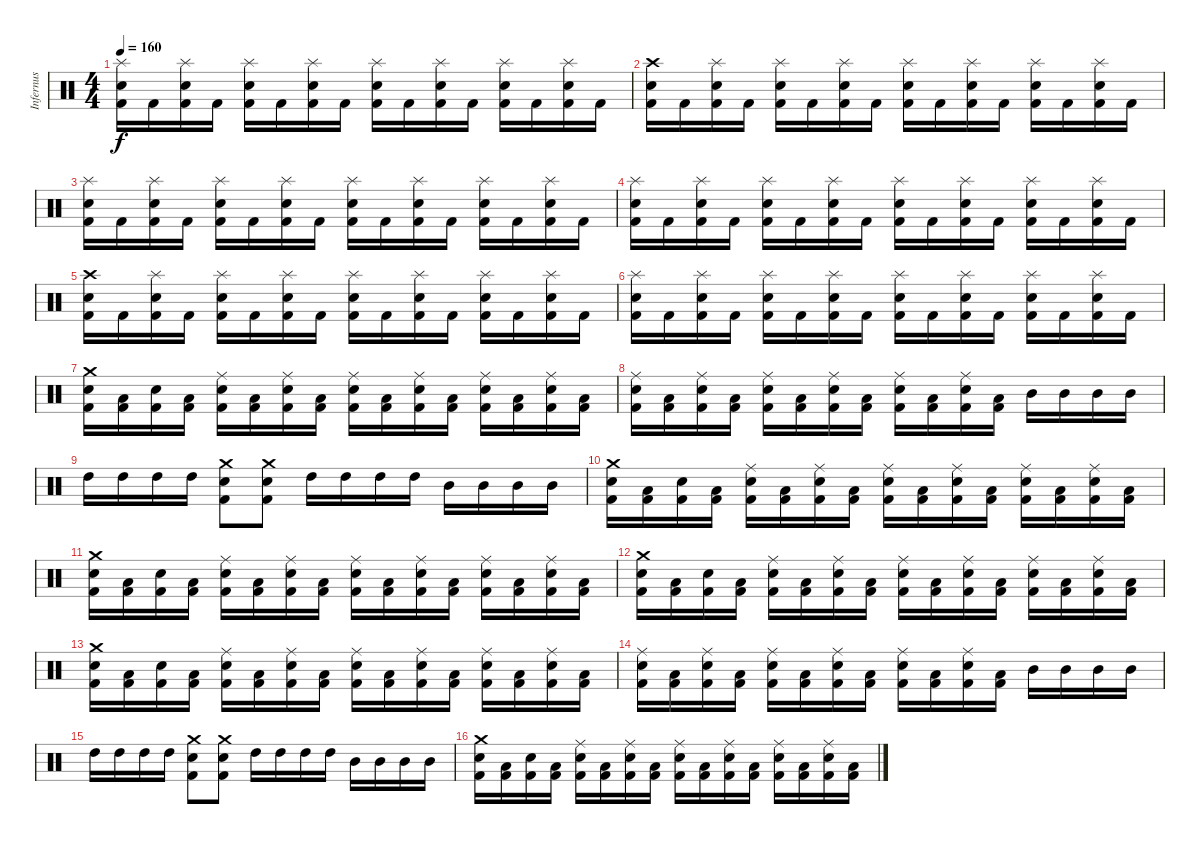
\track ("Infernus" "Infernus") {instrument percussion}
\staff {score}
\articulation defaults
\ts (4 4)
\tempo 160
\clef neutral
\ks c
("Splash (hit)" "Electric Snare (hit)" "Kick (hit) 2").16{dy f} "Kick (hit) 2".16 ("Splash (hit)" "Electric Snare (hit)" "Kick (hit) 2").16 "Kick (hit) 2".16 ("Splash (hit)" "Electric Snare (hit)" "Kick (hit) 2").16 "Kick (hit) 2".16 ("Splash (hit)" "Electric Snare (hit)" "Kick (hit) 2").16 "Kick (hit) 2".16 ("Splash (hit)" "Electric Snare (hit)" "Kick (hit) 2").16 "Kick (hit) 2".16 ("Splash (hit)" "Electric Snare (hit)" "Kick (hit) 2").16 "Kick (hit) 2".16 ("Splash (hit)" "Electric Snare (hit)" "Kick (hit) 2").16 "Kick (hit) 2".16 ("Splash (hit)" "Electric Snare (hit)" "Kick (hit) 2").16 "Kick (hit) 2".16 |
("Crash high (hit)" "Electric Snare (hit)" "Kick (hit) 2").16 "Kick (hit) 2".16 ("Splash (hit)" "Electric Snare (hit)" "Kick (hit) 2").16 "Kick (hit) 2".16 ("Splash (hit)" "Electric Snare (hit)" "Kick (hit) 2").16 "Kick (hit) 2".16 ("Splash (hit)" "Electric Snare (hit)" "Kick (hit) 2").16 "Kick (hit) 2".16 ("Splash (hit)" "Electric Snare (hit)" "Kick (hit) 2").16 "Kick (hit) 2".16 ("Splash (hit)" "Electric Snare (hit)" "Kick (hit) 2").16 "Kick (hit) 2".16 ("Splash (hit)" "Electric Snare (hit)" "Kick (hit) 2").16 "Kick (hit) 2".16 ("Splash (hit)" "Electric Snare (hit)" "Kick (hit) 2").16 "Kick (hit) 2".16 |
("Splash (hit)" "Electric Snare (hit)" "Kick (hit) 2").16 "Kick (hit) 2".16 ("Splash (hit)" "Electric Snare (hit)" "Kick (hit) 2").16 "Kick (hit) 2".16 ("Splash (hit)" "Electric Snare (hit)" "Kick (hit) 2").16 "Kick (hit) 2".16 ("Splash (hit)" "Electric Snare (hit)" "Kick (hit) 2").16 "Kick (hit) 2".16 ("Splash (hit)" "Electric Snare (hit)" "Kick (hit) 2").16 "Kick (hit) 2".16 ("Splash (hit)" "Electric Snare (hit)" "Kick (hit) 2").16 "Kick (hit) 2".16 ("Splash (hit)" "Electric Snare (hit)" "Kick (hit) 2").16 "Kick (hit) 2".16 ("Splash (hit)" "Electric Snare (hit)" "Kick (hit) 2").16 "Kick (hit) 2".16 |
("Splash (hit)" "Electric Snare (hit)" "Kick (hit) 2").16 "Kick (hit) 2".16 ("Splash (hit)" "Electric Snare (hit)" "Kick (hit) 2").16 "Kick (hit) 2".16 ("Splash (hit)" "Electric Snare (hit)" "Kick (hit) 2").16 "Kick (hit) 2".16 ("Splash (hit)" "Electric Snare (hit)" "Kick (hit) 2").16 "Kick (hit) 2".16 ("Splash (hit)" "Electric Snare (hit)" "Kick (hit) 2").16 "Kick (hit) 2".16 ("Splash (hit)" "Electric Snare (hit)" "Kick (hit) 2").16 "Kick (hit) 2".16 ("Splash (hit)" "Electric Snare (hit)" "Kick (hit) 2").16 "Kick (hit) 2".16 ("Splash (hit)" "Electric Snare (hit)" "Kick (hit) 2").16 "Kick (hit) 2".16 |
("Crash high (hit)" "Electric Snare (hit)" "Kick (hit) 2").16 "Kick (hit) 2".16 ("Splash (hit)" "Electric Snare (hit)" "Kick (hit) 2").16 "Kick (hit) 2".16 ("Splash (hit)" "Electric Snare (hit)" "Kick (hit) 2").16 "Kick (hit) 2".16 ("Splash (hit)" "Electric Snare (hit)" "Kick (hit) 2").16 "Kick (hit) 2".16 ("Splash (hit)" "Electric Snare (hit)" "Kick (hit) 2").16 "Kick (hit) 2".16 ("Splash (hit)" "Electric Snare (hit)" "Kick (hit) 2").16 "Kick (hit) 2".16 ("Splash (hit)" "Electric Snare (hit)" "Kick (hit) 2").16 "Kick (hit) 2".16 ("Splash (hit)" "Electric Snare (hit)" "Kick (hit) 2").16 "Kick (hit) 2".16 |
("Splash (hit)" "Electric Snare (hit)" "Kick (hit) 2").16 "Kick (hit) 2".16 ("Splash (hit)" "Electric Snare (hit)" "Kick (hit) 2").16 "Kick (hit) 2".16 ("Splash (hit)" "Electric Snare (hit)" "Kick (hit) 2").16 "Kick (hit) 2".16 ("Splash (hit)" "Electric Snare (hit)" "Kick (hit) 2").16 "Kick (hit) 2".16 ("Splash (hit)" "Electric Snare (hit)" "Kick (hit) 2").16 "Kick (hit) 2".16 ("Splash (hit)" "Electric Snare (hit)" "Kick (hit) 2").16 "Kick (hit) 2".16 ("Splash (hit)" "Electric Snare (hit)" "Kick (hit) 2").16 "Kick (hit) 2".16 ("Splash (hit)" "Electric Snare (hit)" "Kick (hit) 2").16 "Kick (hit) 2".16 |
("Crash medium (hit)" "Electric Snare (hit)" "Kick (hit) 2").16 ("Low Tom (hit)" "Kick (hit) 2").16 ("Electric Snare (hit)" "Kick (hit) 2").16 ("Low Tom (hit)" "Kick (hit) 2").16 ("Ride (middle)" "Electric Snare (hit)" "Kick (hit) 2").16 ("Low Tom (hit)" "Kick (hit) 2").16 ("Ride (middle)" "Electric Snare (hit)" "Kick (hit) 2").16 ("Low Tom (hit)" "Kick (hit) 2").16 ("Ride (middle)" "Electric Snare (hit)" "Kick (hit) 2").16 ("Low Tom (hit)" "Kick (hit) 2").16 ("Ride (middle)" "Electric Snare (hit)" "Kick (hit) 2").16 ("Low Tom (hit)" "Kick (hit) 2").16 ("Ride (middle)" "Electric Snare (hit)" "Kick (hit) 2").16 ("Low Tom (hit)" "Kick (hit) 2").16 ("Ride (middle)" "Electric Snare (hit)" "Kick (hit) 2").16 ("Low Tom (hit)" "Kick (hit) 2").16 |
("Ride (middle)" "Electric Snare (hit)" "Kick (hit) 2").16 ("Low Tom (hit)" "Kick (hit) 2").16 ("Ride (middle)" "Electric Snare (hit)" "Kick (hit) 2").16 ("Low Tom (hit)" "Kick (hit) 2").16 ("Ride (middle)" "Electric Snare (hit)" "Kick (hit) 2").16 ("Low Tom (hit)" "Kick (hit) 2").16 ("Ride (middle)" "Electric Snare (hit)" "Kick (hit) 2").16 ("Low Tom (hit)" "Kick (hit) 2").16 ("Ride (middle)" "Electric Snare (hit)" "Kick (hit) 2").16 ("Low Tom (hit)" "Kick (hit) 2").16 ("Ride (middle)" "Electric Snare (hit)" "Kick (hit) 2").16 ("Low Tom (hit)" "Kick (hit) 2").16 "Mid Tom (hit)".16 "Mid Tom (hit)".16 "Mid Tom (hit)".16 "Mid Tom (hit)".16 |
"High Tom (hit)".16 "High Tom (hit)".16 "High Tom (hit)".16 "High Tom (hit)".16 ("Crash medium (hit)" "Electric Snare (hit)" "Kick (hit) 2").8 ("Crash medium (hit)" "Electric Snare (hit)" "Kick (hit) 2").8 "High Tom (hit)".16 "High Tom (hit)".16 "High Tom (hit)".16 "High Tom (hit)".16 "Mid Tom (hit)".16 "Mid Tom (hit)".16 "Mid Tom (hit)".16 "Mid Tom (hit)".16 |
("Crash medium (hit)" "Electric Snare (hit)" "Kick (hit) 2").16 ("Low Tom (hit)" "Kick (hit) 2").16 ("Electric Snare (hit)" "Kick (hit) 2").16 ("Low Tom (hit)" "Kick (hit) 2").16 ("Ride (middle)" "Electric Snare (hit)" "Kick (hit) 2").16 ("Low Tom (hit)" "Kick (hit) 2").16 ("Ride (middle)" "Electric Snare (hit)" "Kick (hit) 2").16 ("Low Tom (hit)" "Kick (hit) 2").16 ("Ride (middle)" "Electric Snare (hit)" "Kick (hit) 2").16 ("Low Tom (hit)" "Kick (hit) 2").16 ("Ride (middle)" "Electric Snare (hit)" "Kick (hit) 2").16 ("Low Tom (hit)" "Kick (hit) 2").16 ("Ride (middle)" "Electric Snare (hit)" "Kick (hit) 2").16 ("Low Tom (hit)" "Kick (hit) 2").16 ("Ride (middle)" "Electric Snare (hit)" "Kick (hit) 2").16 ("Low Tom (hit)" "Kick (hit) 2").16 |
("Crash medium (hit)" "Electric Snare (hit)" "Kick (hit) 2").16 ("Low Tom (hit)" "Kick (hit) 2").16 ("Electric Snare (hit)" "Kick (hit) 2").16 ("Low Tom (hit)" "Kick (hit) 2").16 ("Ride (middle)" "Electric Snare (hit)" "Kick (hit) 2").16 ("Low Tom (hit)" "Kick (hit) 2").16 ("Ride (middle)" "Electric Snare (hit)" "Kick (hit) 2").16 ("Low Tom (hit)" "Kick (hit) 2").16 ("Ride (middle)" "Electric Snare (hit)" "Kick (hit) 2").16 ("Low Tom (hit)" "Kick (hit) 2").16 ("Ride (middle)" "Electric Snare (hit)" "Kick (hit) 2").16 ("Low Tom (hit)" "Kick (hit) 2").16 ("Ride (middle)" "Electric Snare (hit)" "Kick (hit) 2").16 ("Low Tom (hit)" "Kick (hit) 2").16 ("Ride (middle)" "Electric Snare (hit)" "Kick (hit) 2").16 ("Low Tom (hit)" "Kick (hit) 2").16 |
("Crash medium (hit)" "Electric Snare (hit)" "Kick (hit) 2").16 ("Low Tom (hit)" "Kick (hit) 2").16 ("Electric Snare (hit)" "Kick (hit) 2").16 ("Low Tom (hit)" "Kick (hit) 2").16 ("Ride (middle)" "Electric Snare (hit)" "Kick (hit) 2").16 ("Low Tom (hit)" "Kick (hit) 2").16 ("Ride (middle)" "Electric Snare (hit)" "Kick (hit) 2").16 ("Low Tom (hit)" "Kick (hit) 2").16 ("Ride (middle)" "Electric Snare (hit)" "Kick (hit) 2").16 ("Low Tom (hit)" "Kick (hit) 2").16 ("Ride (middle)" "Electric Snare (hit)" "Kick (hit) 2").16 ("Low Tom (hit)" "Kick (hit) 2").16 ("Ride (middle)" "Electric Snare (hit)" "Kick (hit) 2").16 ("Low Tom (hit)" "Kick (hit) 2").16 ("Ride (middle)" "Electric Snare (hit)" "Kick (hit) 2").16 ("Low Tom (hit)" "Kick (hit) 2").16 |
("Crash medium (hit)" "Electric Snare (hit)" "Kick (hit) 2").16 ("Low Tom (hit)" "Kick (hit) 2").16 ("Electric Snare (hit)" "Kick (hit) 2").16 ("Low Tom (hit)" "Kick (hit) 2").16 ("Ride (middle)" "Electric Snare (hit)" "Kick (hit) 2").16 ("Low Tom (hit)" "Kick (hit) 2").16 ("Ride (middle)" "Electric Snare (hit)" "Kick (hit) 2").16 ("Low Tom (hit)" "Kick (hit) 2").16 ("Ride (middle)" "Electric Snare (hit)" "Kick (hit) 2").16 ("Low Tom (hit)" "Kick (hit) 2").16 ("Ride (middle)" "Electric Snare (hit)" "Kick (hit) 2").16 ("Low Tom (hit)" "Kick (hit) 2").16 ("Ride (middle)" "Electric Snare (hit)" "Kick (hit) 2").16 ("Low Tom (hit)" "Kick (hit) 2").16 ("Ride (middle)" "Electric Snare (hit)" "Kick (hit) 2").16 ("Low Tom (hit)" "Kick (hit) 2").16 |
("Ride (middle)" "Electric Snare (hit)" "Kick (hit) 2").16 ("Low Tom (hit)" "Kick (hit) 2").16 ("Ride (middle)" "Electric Snare (hit)" "Kick (hit) 2").16 ("Low Tom (hit)" "Kick (hit) 2").16 ("Ride (middle)" "Electric Snare (hit)" "Kick (hit) 2").16 ("Low Tom (hit)" "Kick (hit) 2").16 ("Ride (middle)" "Electric Snare (hit)" "Kick (hit) 2").16 ("Low Tom (hit)" "Kick (hit) 2").16 ("Ride (middle)" "Electric Snare (hit)" "Kick (hit) 2").16 ("Low Tom (hit)" "Kick (hit) 2").16 ("Ride (middle)" "Electric Snare (hit)" "Kick (hit) 2").16 ("Low Tom (hit)" "Kick (hit) 2").16 "Mid Tom (hit)".16 "Mid Tom (hit)".16 "Mid Tom (hit)".16 "Mid Tom (hit)".16 |
"High Tom (hit)".16 "High Tom (hit)".16 "High Tom (hit)".16 "High Tom (hit)".16 ("Crash medium (hit)" "Electric Snare (hit)" "Kick (hit) 2").8 ("Crash medium (hit)" "Electric Snare (hit)" "Kick (hit) 2").8 "High Tom (hit)".16 "High Tom (hit)".16 "High Tom (hit)".16 "High Tom (hit)".16 "Mid Tom (hit)".16 "Mid Tom (hit)".16 "Mid Tom (hit)".16 "Mid Tom (hit)".16 |
("Crash medium (hit)" "Electric Snare (hit)" "Kick (hit) 2").16 ("Low Tom (hit)" "Kick (hit) 2").16 ("Electric Snare (hit)" "Kick (hit) 2").16 ("Low Tom (hit)" "Kick (hit) 2").16 ("Ride (middle)" "Electric Snare (hit)" "Kick (hit) 2").16 ("Low Tom (hit)" "Kick (hit) 2").16 ("Ride (middle)" "Electric Snare (hit)" "Kick (hit) 2").16 ("Low Tom (hit)" "Kick (hit) 2").16 ("Ride (middle)" "Electric Snare (hit)" "Kick (hit) 2").16 ("Low Tom (hit)" "Kick (hit) 2").16 ("Ride (middle)" "Electric Snare (hit)" "Kick (hit) 2").16 ("Low Tom (hit)" "Kick (hit) 2").16 ("Ride (middle)" "Electric Snare (hit)" "Kick (hit) 2").16 ("Low Tom (hit)" "Kick (hit) 2").16 ("Ride (middle)" "Electric Snare (hit)" "Kick (hit) 2").16 ("Low Tom (hit)" "Kick (hit) 2").16
